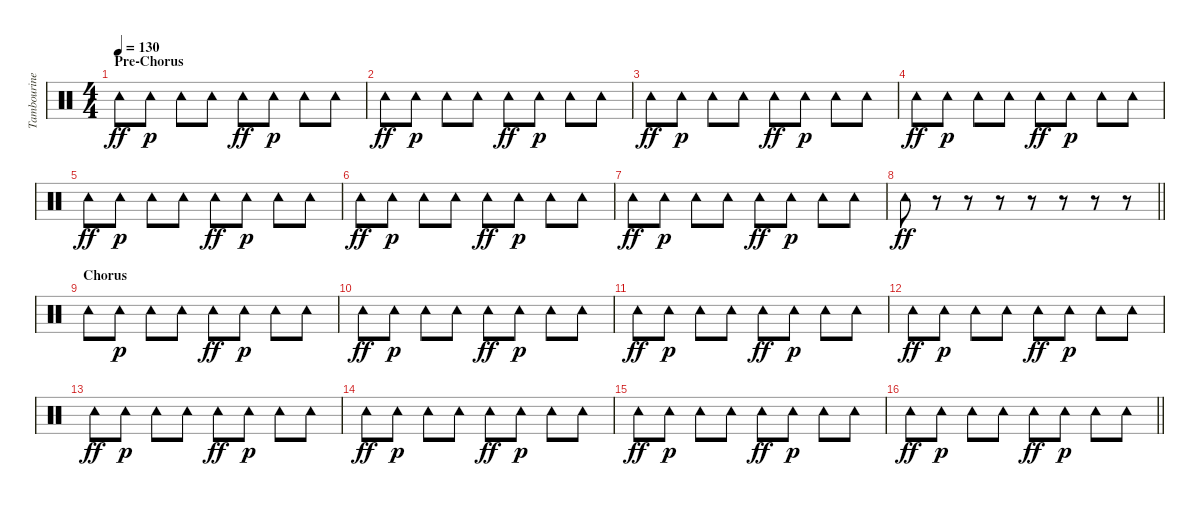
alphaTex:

\track ("Tambourine" "Tambourine") {instrument percussion}
\staff {score}
\articulation defaults
\ts (4 4)
\section ("" "Pre-Chorus")
\tempo 130
\clef neutral
\ks c "Tambourine (hit)".8{dy ff} "Tambourine (hit)".8{dy p} "Tambourine (hit)".8 "Tambourine (hit)".8 "Tambourine (hit)".8{dy ff} "Tambourine (hit)".8{dy p} "Tambourine (hit)".8 "Tambourine (hit)".8
|
"Tambourine (hit)".8{dy ff} "Tambourine (hit)".8{dy p} "Tambourine (hit)".8 "Tambourine (hit)".8 "Tambourine (hit)".8{dy ff} "Tambourine (hit)".8{dy p} "Tambourine (hit)".8 "Tambourine (hit)".8 |
"Tambourine (hit)".8{dy ff} "Tambourine (hit)".8{dy p} "Tambourine (hit)".8 "Tambourine (hit)".8 "Tambourine (hit)".8{dy ff} "Tambourine (hit)".8{dy p} "Tambourine (hit)".8 "Tambourine (hit)".8 |
"Tambourine (hit)".8{dy ff} "Tambourine (hit)".8{dy p} "Tambourine (hit)".8 "Tambourine (hit)".8 "Tambourine (hit)".8{dy ff} "Tambourine (hit)".8{dy p} "Tambourine (hit)".8 "Tambourine (hit)".8 |
"Tambourine (hit)".8{dy ff} "Tambourine (hit)".8{dy p} "Tambourine (hit)".8 "Tambourine (hit)".8 "Tambourine (hit)".8{dy ff} "Tambourine (hit)".8{dy p} "Tambourine (hit)".8 "Tambourine (hit)".8 |
"Tambourine (hit)".8{dy ff} "Tambourine (hit)".8{dy p} "Tambourine (hit)".8 "Tambourine (hit)".8 "Tambourine (hit)".8{dy ff} "Tambourine (hit)".8{dy p} "Tambourine (hit)".8 "Tambourine (hit)".8 |
"Tambourine (hit)".8{dy ff} "Tambourine (hit)".8{dy p} "Tambourine (hit)".8 "Tambourine (hit)".8 "Tambourine (hit)".8{dy ff} "Tambourine (hit)".8{dy p} "Tambourine (hit)".8 "Tambourine (hit)".8 |
\barLineRight lightlight "Tambourine (hit)".8{dy ff}
r.8 r.8 r.8 r.8 r.8 r.8 r.8 |
\section ("" "Chorus")
"Tambourine (hit)".8 "Tambourine (hit)".8{dy p} "Tambourine (hit)".8 "Tambourine (hit)".8 "Tambourine (hit)".8{dy ff} "Tambourine (hit)".8{dy p} "Tambourine (hit)".8 "Tambourine (hit)".8 |
"Tambourine (hit)".8{dy ff} "Tambourine (hit)".8{dy p} "Tambourine (hit)".8 "Tambourine (hit)".8 "Tambourine (hit)".8{dy ff} "Tambourine (hit)".8{dy p} "Tambourine (hit)".8 "Tambourine (hit)".8 |
"Tambourine (hit)".8{dy ff} "Tambourine (hit)".8{dy p} "Tambourine (hit)".8 "Tambourine (hit)".8 "Tambourine (hit)".8{dy ff} "Tambourine (hit)".8{dy p} "Tambourine (hit)".8 "Tambourine (hit)".8 |
"Tambourine (hit)".8{dy ff} "Tambourine (hit)".8{dy p} "Tambourine (hit)".8 "Tambourine (hit)".8 "Tambourine (hit)".8{dy ff} "Tambourine (hit)".8{dy p} "Tambourine (hit)".8 "Tambourine (hit)".8 |
"Tambourine (hit)".8{dy ff} "Tambourine (hit)".8{dy p} "Tambourine (hit)".8 "Tambourine (hit)".8 "Tambourine (hit)".8{dy ff} "Tambourine (hit)".8{dy p} "Tambourine (hit)".8 "Tambourine (hit)".8 |
"Tambourine (hit)".8{dy ff} "Tambourine (hit)".8{dy p} "Tambourine (hit)".8 "Tambourine (hit)".8 "Tambourine (hit)".8{dy ff} "Tambourine (hit)".8{dy p} "Tambourine (hit)".8 "Tambourine (hit)".8 |
"Tambourine (hit)".8{dy ff} "Tambourine (hit)".8{dy p} "Tambourine (hit)".8 "Tambourine (hit)".8 "Tambourine (hit)".8{dy ff} "Tambourine (hit)".8{dy p} "Tambourine (hit)".8 "Tambourine (hit)".8 |
\barLineRight lightlight "Tambourine (hit)".8{dy ff} "Tambourine (hit)".8{dy p} "Tambourine (hit)".8 "Tambourine (hit)".8 "Tambourine (hit)".8{dy ff} "Tambourine (hit)".8{dy p} "Tambourine (hit)".8 "Tambourine (hit)".8
